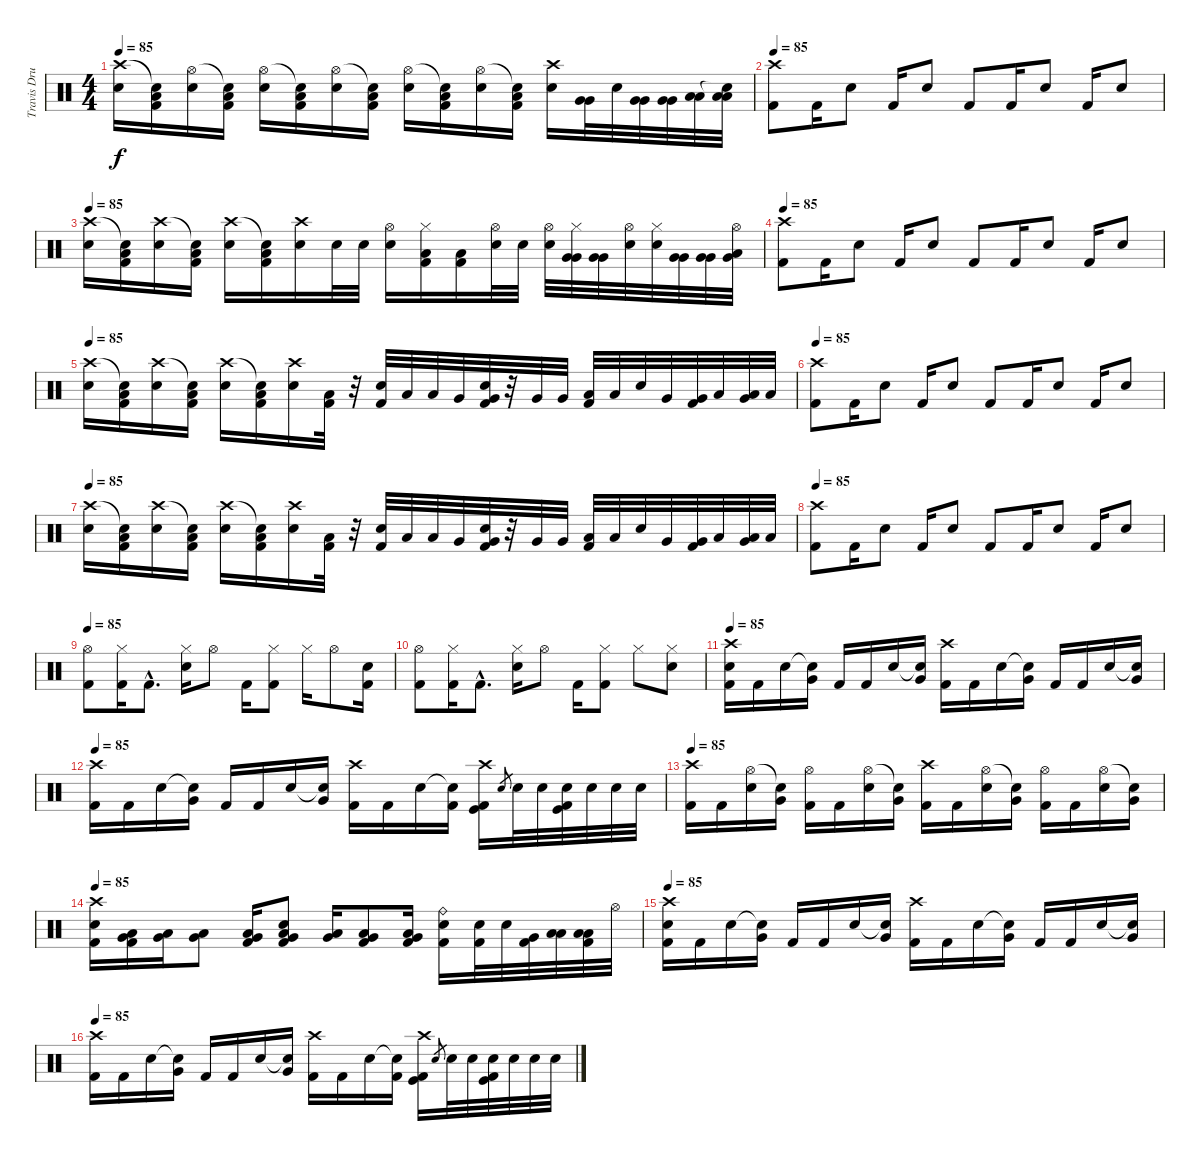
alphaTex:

\track ("Travis Drums" "Travis Dru") {instrument percussion}
\staff {score}
\articulation defaults
\ts (4 4)
\tempo 85
\clef neutral
\ks c
("Crash high (hit)" "Electric Snare (hit)").16{dy f} ("Snare (hit)"{t} "Low Floor Tom (hit)" "Kick (hit) 2").16 ("Hi-Hat (open)" "Electric Snare (hit)").16 ("Snare (hit)"{t} "Low Floor Tom (hit)" "Kick (hit) 2").16 ("Hi-Hat (open)" "Electric Snare (hit)").16 ("Snare (hit)"{t} "Low Floor Tom (hit)" "Kick (hit) 2").16 ("Hi-Hat (open)" "Electric Snare (hit)").16 ("Snare (hit)"{t} "Low Floor Tom (hit)" "Kick (hit) 2").16 ("Hi-Hat (open)" "Electric Snare (hit)").16 ("Snare (hit)"{t} "Low Floor Tom (hit)" "Kick (hit) 2").16 ("Hi-Hat (open)" "Electric Snare (hit)").16 ("Snare (hit)"{t} "Low Floor Tom (hit)" "Kick (hit) 2").16 ("Crash high (hit)" "Electric Snare (hit)").16 ("Very Low Tom (hit)" "Very Low Tom (hit)").32 "Electric Snare (hit)".32 ("Very Low Tom (hit)" "Very Low Tom (hit)").32 ("Very Low Tom (hit)" "Very Low Tom (hit)").32 ("Low Floor Tom (hit)" "Low Floor Tom (hit)").32 ("Snare (hit)"{t} "Low Floor Tom (hit)" "Low Floor Tom (hit)").32 |
\tempo 85
("Crash high (hit)" "Kick (hit) 2").8 "Kick (hit) 2".16 "Electric Snare (hit)".8 "Kick (hit) 2".16 "Electric Snare (hit)".8 "Kick (hit) 2".8 "Kick (hit) 2".16 "Electric Snare (hit)".8 "Kick (hit) 2".16 "Electric Snare (hit)".8 |
\tempo 85
("Crash high (hit)" "Electric Snare (hit)").16 ("Snare (hit)"{t} "Low Floor Tom (hit)" "Kick (hit) 2").16 ("Crash high (hit)" "Electric Snare (hit)").16 ("Snare (hit)"{t} "Low Floor Tom (hit)" "Kick (hit) 2").16 ("Crash high (hit)" "Electric Snare (hit)").16 ("Snare (hit)"{t} "Low Floor Tom (hit)" "Kick (hit) 2").16 ("Crash high (hit)" "Electric Snare (hit)").16 "Electric Snare (hit)".32 "Electric Snare (hit)".32 ("Hi-Hat (open)" "Electric Snare (hit)").16 ("Hi-Hat (closed)" "Low Floor Tom (hit)" "Kick (hit) 2").16 ("Low Floor Tom (hit)" "Kick (hit) 2").16 ("Hi-Hat (open)" "Electric Snare (hit)").32 "Electric Snare (hit)".32 ("Hi-Hat (open)" "Electric Snare (hit)").32 ("Hi-Hat (closed)" "Very Low Tom (hit)" "Very Low Tom (hit)").32 ("Very Low Tom (hit)" "Very Low Tom (hit)").32 ("Hi-Hat (open)" "Electric Snare (hit)").32 ("Hi-Hat (closed)" "Electric Snare (hit)").32 ("Very Low Tom (hit)" "Very Low Tom (hit)").32 ("Very Low Tom (hit)" "Very Low Tom (hit)").32 ("Hi-Hat (open)" "Very Low Tom (hit)" "Low Floor Tom (hit)").32 |
\tempo 85
("Crash high (hit)" "Kick (hit) 2").8 "Kick (hit) 2".16 "Electric Snare (hit)".8 "Kick (hit) 2".16 "Electric Snare (hit)".8 "Kick (hit) 2".8 "Kick (hit) 2".16 "Electric Snare (hit)".8 "Kick (hit) 2".16 "Electric Snare (hit)".8 |
\tempo 85
("Crash high (hit)" "Electric Snare (hit)").16 ("Snare (hit)"{t} "Low Floor Tom (hit)" "Kick (hit) 2").16 ("Crash high (hit)" "Electric Snare (hit)").16 ("Snare (hit)"{t} "Low Floor Tom (hit)" "Kick (hit) 2").16 ("Crash high (hit)" "Electric Snare (hit)").16 ("Snare (hit)"{t} "Low Floor Tom (hit)" "Kick (hit) 2").16 ("Crash high (hit)" "Electric Snare (hit)").16 ("Low Floor Tom (hit)" "Kick (hit) 2").32 r.32 ("Electric Snare (hit)" "Kick (hit) 2").32 "Low Tom (hit)".32 "Low Tom (hit)".32 "Very Low Tom (hit)".32 ("Electric Snare (hit)" "Very Low Tom (hit)" "Kick (hit) 2").32 r.32 "Very Low Tom (hit)".32 "Very Low Tom (hit)".32 ("Low Floor Tom (hit)" "Kick (hit) 2").32 "Low Floor Tom (hit)".32 "Electric Snare (hit)".32 "Very Low Tom (hit)".32 ("Very Low Tom (hit)" "Kick (hit) 2").32 "Low Floor Tom (hit)".32 ("Very Low Tom (hit)" "Low Floor Tom (hit)").32 "Low Floor Tom (hit)".32 |
\tempo 85
("Crash high (hit)" "Kick (hit) 2").8 "Kick (hit) 2".16 "Electric Snare (hit)".8 "Kick (hit) 2".16 "Electric Snare (hit)".8 "Kick (hit) 2".8 "Kick (hit) 2".16 "Electric Snare (hit)".8 "Kick (hit) 2".16 "Electric Snare (hit)".8 |
\tempo 85
("Crash high (hit)" "Electric Snare (hit)").16 ("Snare (hit)"{t} "Low Floor Tom (hit)" "Kick (hit) 2").16 ("Crash high (hit)" "Electric Snare (hit)").16 ("Snare (hit)"{t} "Low Floor Tom (hit)" "Kick (hit) 2").16 ("Crash high (hit)" "Electric Snare (hit)").16 ("Snare (hit)"{t} "Low Floor Tom (hit)" "Kick (hit) 2").16 ("Crash high (hit)" "Electric Snare (hit)").16 ("Low Floor Tom (hit)" "Kick (hit) 2").32 r.32 ("Electric Snare (hit)" "Kick (hit) 2").32 "Low Tom (hit)".32 "Low Tom (hit)".32 "Very Low Tom (hit)".32 ("Electric Snare (hit)" "Very Low Tom (hit)" "Kick (hit) 2").32 r.32 "Very Low Tom (hit)".32 "Very Low Tom (hit)".32 ("Low Floor Tom (hit)" "Kick (hit) 2").32 "Low Floor Tom (hit)".32 "Electric Snare (hit)".32 "Very Low Tom (hit)".32 ("Very Low Tom (hit)" "Kick (hit) 2").32 "Low Floor Tom (hit)".32 ("Very Low Tom (hit)" "Low Floor Tom (hit)").32 "Low Floor Tom (hit)".32 |
\tempo 85
("Crash high (hit)" "Kick (hit) 2").8 "Kick (hit) 2".16 "Electric Snare (hit)".8 "Kick (hit) 2".16 "Electric Snare (hit)".8 "Kick (hit) 2".8 "Kick (hit) 2".16 "Electric Snare (hit)".8 "Kick (hit) 2".16 "Electric Snare (hit)".8 |
\tempo 85
("Hi-Hat (open)" "Kick (hit) 2").8 ("Hi-Hat (closed)" "Kick (hit) 2").16 "Kick (hit) 2"{hac}.8{d} ("Hi-Hat (closed)" "Electric Snare (hit)").16 "Hi-Hat (open)".8 "Kick (hit) 2".16 ("Hi-Hat (closed)" "Kick (hit) 2").8 "Hi-Hat (closed)".16 "Hi-Hat (open)".8 ("Electric Snare (hit)" "Kick (hit) 2").16 |
("Hi-Hat (open)" "Kick (hit) 2").8 ("Hi-Hat (closed)" "Kick (hit) 2").16 "Kick (hit) 2"{hac}.8{d} ("Hi-Hat (closed)" "Electric Snare (hit)").16 "Hi-Hat (open)".8 "Kick (hit) 2".16 ("Hi-Hat (closed)" "Kick (hit) 2").8 "Hi-Hat (closed)".8 ("Hi-Hat (closed)" "Electric Snare (hit)").8 |
\tempo 85
("Crash high (hit)" "Electric Snare (hit)" "Kick (hit) 2").16 "Kick (hit) 2".16 "Electric Snare (hit)".16 ("Snare (hit)"{t} "Very Low Tom (hit)").16 "Kick (hit) 2".16 "Kick (hit) 2".16 "Electric Snare (hit)".16 ("Snare (hit)"{t} "Very Low Tom (hit)").16 ("Crash high (hit)" "Kick (hit) 2").16 "Kick (hit) 2".16 "Electric Snare (hit)".16 ("Snare (hit)"{t} "Very Low Tom (hit)").16 "Kick (hit) 2".16 "Kick (hit) 2".16 "Electric Snare (hit)".16 ("Snare (hit)"{t} "Very Low Tom (hit)").16 |
\tempo 85
("Crash high (hit)" "Kick (hit) 2").16 "Kick (hit) 2".16 "Electric Snare (hit)".16 ("Snare (hit)"{t} "Very Low Tom (hit)").16 "Kick (hit) 2".16 "Kick (hit) 2".16 "Electric Snare (hit)".16 ("Snare (hit)"{t} "Very Low Tom (hit)").16 ("Crash high (hit)" "Kick (hit) 2").16 "Kick (hit) 2".16 "Electric Snare (hit)".16 ("Snare (hit)"{t} "Kick (hit) 2").16 ("Crash high (hit)" "Kick (hit)" "Kick (hit) 2").16 "Snare (hit) 2".8{gr} "Electric Snare (hit)".32 "Electric Snare (hit)".32 ("Electric Snare (hit)" "Kick (hit)" "Kick (hit) 2").32 "Electric Snare (hit)".32 "Electric Snare (hit)".32 "Electric Snare (hit)".32 |
\tempo 85
("Crash high (hit)" "Kick (hit) 2").16 "Kick (hit) 2".16 ("Hi-Hat (open)" "Electric Snare (hit)").16 ("Snare (hit)"{t} "Very Low Tom (hit)").16 ("Hi-Hat (open)" "Kick (hit) 2").16 "Kick (hit) 2".16 ("Hi-Hat (open)" "Electric Snare (hit)").16 ("Snare (hit)"{t} "Very Low Tom (hit)").16 ("Crash high (hit)" "Kick (hit) 2").16 "Kick (hit) 2".16 ("Hi-Hat (open)" "Electric Snare (hit)").16 ("Snare (hit)"{t} "Very Low Tom (hit)").16 ("Hi-Hat (open)" "Kick (hit) 2").16 "Kick (hit) 2".16 ("Hi-Hat (open)" "Electric Snare (hit)").16 ("Snare (hit)"{t} "Very Low Tom (hit)").16 |
\tempo 85
("Crash high (hit)" "Electric Snare (hit)" "Kick (hit) 2").16 ("Very Low Tom (hit)" "Low Floor Tom (hit)" "Kick (hit) 2").16 ("Very Low Tom (hit)" "Low Floor Tom (hit)").16 ("Very Low Tom (hit)" "Low Floor Tom (hit)").8 ("Very Low Tom (hit)" "Low Floor Tom (hit)" "Kick (hit) 2").16 ("Electric Snare (hit)" "Very Low Tom (hit)" "Low Floor Tom (hit)" "Kick (hit) 2").8 ("Very Low Tom (hit)" "Low Floor Tom (hit)").16 ("Very Low Tom (hit)" "Low Floor Tom (hit)" "Kick (hit) 2").8 ("Very Low Tom (hit)" "Low Floor Tom (hit)" "Kick (hit) 2").16 ("Ride (bell)" "Snare (hit) 2" "Kick (hit) 2").16 ("Electric Snare (hit)" "Kick (hit) 2").32 "Electric Snare (hit)".32 ("Very Low Tom (hit)" "Kick (hit) 2").32 ("Low Floor Tom (hit)" "Low Floor Tom (hit)").32 ("Low Floor Tom (hit)" "Low Floor Tom (hit)" "Kick (hit) 2").32 "Hi-Hat (open)".32 |
\tempo 85
("Crash high (hit)" "Electric Snare (hit)" "Kick (hit) 2").16 "Kick (hit) 2".16 "Electric Snare (hit)".16 ("Snare (hit)"{t} "Very Low Tom (hit)").16 "Kick (hit) 2".16 "Kick (hit) 2".16 "Electric Snare (hit)".16 ("Snare (hit)"{t} "Very Low Tom (hit)").16 ("Crash high (hit)" "Kick (hit) 2").16 "Kick (hit) 2".16 "Electric Snare (hit)".16 ("Snare (hit)"{t} "Very Low Tom (hit)").16 "Kick (hit) 2".16 "Kick (hit) 2".16 "Electric Snare (hit)".16 ("Snare (hit)"{t} "Very Low Tom (hit)").16 |
\tempo 85
("Crash high (hit)" "Kick (hit) 2").16 "Kick (hit) 2".16 "Electric Snare (hit)".16 ("Snare (hit)"{t} "Very Low Tom (hit)").16 "Kick (hit) 2".16 "Kick (hit) 2".16 "Electric Snare (hit)".16 ("Snare (hit)"{t} "Very Low Tom (hit)").16 ("Crash high (hit)" "Kick (hit) 2").16 "Kick (hit) 2".16 "Electric Snare (hit)".16 ("Snare (hit)"{t} "Kick (hit) 2").16 ("Crash high (hit)" "Kick (hit)" "Kick (hit) 2").16 "Snare (hit) 2".8{gr} "Electric Snare (hit)".32 "Electric Snare (hit)".32 ("Electric Snare (hit)" "Kick (hit)" "Kick (hit) 2").32 "Electric Snare (hit)".32 "Electric Snare (hit)".32 "Electric Snare (hit)".32
